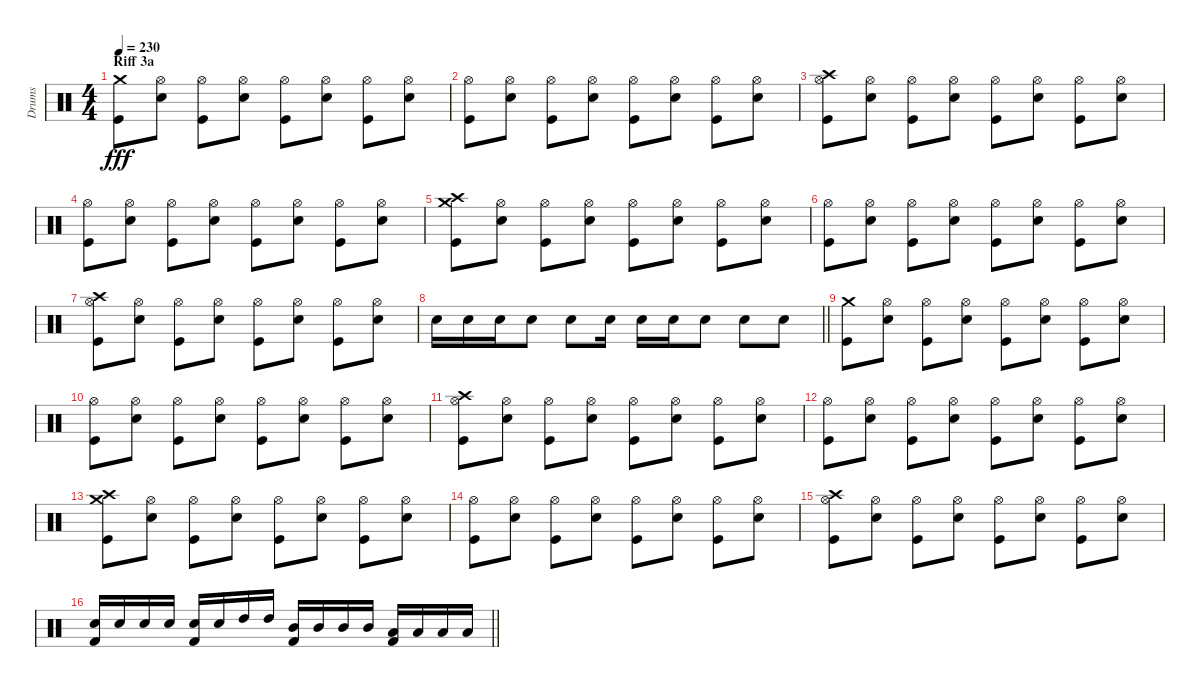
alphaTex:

\track ("Drums" "Drums") {instrument percussion}
\staff {score}
\articulation defaults
\ts (4 4)
\section ("" "Riff 3a")
\tempo 230
\clef neutral
\ks c
("Crash medium (hit)" "Kick (hit)").8{dy fff} ("Hi-Hat (open)" "Snare (hit) 2").8 ("Hi-Hat (open)" "Kick (hit)").8 ("Hi-Hat (open)" "Snare (hit) 2").8 ("Hi-Hat (open)" "Kick (hit)").8 ("Hi-Hat (open)" "Snare (hit) 2").8 ("Hi-Hat (open)" "Kick (hit)").8 ("Hi-Hat (open)" "Snare (hit) 2").8 |
("Hi-Hat (open)" "Kick (hit)").8 ("Hi-Hat (open)" "Snare (hit) 2").8 ("Hi-Hat (open)" "Kick (hit)").8 ("Hi-Hat (open)" "Snare (hit) 2").8 ("Hi-Hat (open)" "Kick (hit)").8 ("Hi-Hat (open)" "Snare (hit) 2").8 ("Hi-Hat (open)" "Kick (hit)").8 ("Hi-Hat (open)" "Snare (hit) 2").8 |
("Crash high (hit)" "Hi-Hat (open)" "Kick (hit)").8 ("Hi-Hat (open)" "Snare (hit) 2").8 ("Hi-Hat (open)" "Kick (hit)").8 ("Hi-Hat (open)" "Snare (hit) 2").8 ("Hi-Hat (open)" "Kick (hit)").8 ("Hi-Hat (open)" "Snare (hit) 2").8 ("Hi-Hat (open)" "Kick (hit)").8 ("Hi-Hat (open)" "Snare (hit) 2").8 |
("Hi-Hat (open)" "Kick (hit)").8 ("Hi-Hat (open)" "Snare (hit) 2").8 ("Hi-Hat (open)" "Kick (hit)").8 ("Hi-Hat (open)" "Snare (hit) 2").8 ("Hi-Hat (open)" "Kick (hit)").8 ("Hi-Hat (open)" "Snare (hit) 2").8 ("Hi-Hat (open)" "Kick (hit)").8 ("Hi-Hat (open)" "Snare (hit) 2").8 |
("Crash medium (hit)" "Crash high (hit)" "Kick (hit)").8 ("Hi-Hat (open)" "Snare (hit) 2").8 ("Hi-Hat (open)" "Kick (hit)").8 ("Hi-Hat (open)" "Snare (hit) 2").8 ("Hi-Hat (open)" "Kick (hit)").8 ("Hi-Hat (open)" "Snare (hit) 2").8 ("Hi-Hat (open)" "Kick (hit)").8 ("Hi-Hat (open)" "Snare (hit) 2").8 |
("Hi-Hat (open)" "Kick (hit)").8 ("Hi-Hat (open)" "Snare (hit) 2").8 ("Hi-Hat (open)" "Kick (hit)").8 ("Hi-Hat (open)" "Snare (hit) 2").8 ("Hi-Hat (open)" "Kick (hit)").8 ("Hi-Hat (open)" "Snare (hit) 2").8 ("Hi-Hat (open)" "Kick (hit)").8 ("Hi-Hat (open)" "Snare (hit) 2").8 |
("Crash high (hit)" "Hi-Hat (open)" "Kick (hit)").8 ("Hi-Hat (open)" "Snare (hit) 2").8 ("Hi-Hat (open)" "Kick (hit)").8 ("Hi-Hat (open)" "Snare (hit) 2").8 ("Hi-Hat (open)" "Kick (hit)").8 ("Hi-Hat (open)" "Snare (hit) 2").8 ("Hi-Hat (open)" "Kick (hit)").8 ("Hi-Hat (open)" "Snare (hit) 2").8 |
\barLineRight lightlight "Electric Snare (hit)".16 "Electric Snare (hit)".16 "Electric Snare (hit)".16 "Electric Snare (hit)".8 "Electric Snare (hit)".8 "Electric Snare (hit)".16 "Electric Snare (hit)".16 "Electric Snare (hit)".16 "Electric Snare (hit)".8 "Electric Snare (hit)".8 "Electric Snare (hit)".8
|
("Crash medium (hit)" "Kick (hit)").8 ("Hi-Hat (open)" "Snare (hit) 2").8 ("Hi-Hat (open)" "Kick (hit)").8 ("Hi-Hat (open)" "Snare (hit) 2").8 ("Hi-Hat (open)" "Kick (hit)").8 ("Hi-Hat (open)" "Snare (hit) 2").8 ("Hi-Hat (open)" "Kick (hit)").8 ("Hi-Hat (open)" "Snare (hit) 2").8 |
("Hi-Hat (open)" "Kick (hit)").8 ("Hi-Hat (open)" "Snare (hit) 2").8 ("Hi-Hat (open)" "Kick (hit)").8 ("Hi-Hat (open)" "Snare (hit) 2").8 ("Hi-Hat (open)" "Kick (hit)").8 ("Hi-Hat (open)" "Snare (hit) 2").8 ("Hi-Hat (open)" "Kick (hit)").8 ("Hi-Hat (open)" "Snare (hit) 2").8 |
("Crash high (hit)" "Hi-Hat (open)" "Kick (hit)").8 ("Hi-Hat (open)" "Snare (hit) 2").8 ("Hi-Hat (open)" "Kick (hit)").8 ("Hi-Hat (open)" "Snare (hit) 2").8 ("Hi-Hat (open)" "Kick (hit)").8 ("Hi-Hat (open)" "Snare (hit) 2").8 ("Hi-Hat (open)" "Kick (hit)").8 ("Hi-Hat (open)" "Snare (hit) 2").8 |
("Hi-Hat (open)" "Kick (hit)").8 ("Hi-Hat (open)" "Snare (hit) 2").8 ("Hi-Hat (open)" "Kick (hit)").8 ("Hi-Hat (open)" "Snare (hit) 2").8 ("Hi-Hat (open)" "Kick (hit)").8 ("Hi-Hat (open)" "Snare (hit) 2").8 ("Hi-Hat (open)" "Kick (hit)").8 ("Hi-Hat (open)" "Snare (hit) 2").8 |
("Crash medium (hit)" "Crash high (hit)" "Kick (hit)").8 ("Hi-Hat (open)" "Snare (hit) 2").8 ("Hi-Hat (open)" "Kick (hit)").8 ("Hi-Hat (open)" "Snare (hit) 2").8 ("Hi-Hat (open)" "Kick (hit)").8 ("Hi-Hat (open)" "Snare (hit) 2").8 ("Hi-Hat (open)" "Kick (hit)").8 ("Hi-Hat (open)" "Snare (hit) 2").8 |
("Hi-Hat (open)" "Kick (hit)").8 ("Hi-Hat (open)" "Snare (hit) 2").8 ("Hi-Hat (open)" "Kick (hit)").8 ("Hi-Hat (open)" "Snare (hit) 2").8 ("Hi-Hat (open)" "Kick (hit)").8 ("Hi-Hat (open)" "Snare (hit) 2").8 ("Hi-Hat (open)" "Kick (hit)").8 ("Hi-Hat (open)" "Snare (hit) 2").8 |
("Crash high (hit)" "Hi-Hat (open)" "Kick (hit)").8 ("Hi-Hat (open)" "Snare (hit) 2").8 ("Hi-Hat (open)" "Kick (hit)").8 ("Hi-Hat (open)" "Snare (hit) 2").8 ("Hi-Hat (open)" "Kick (hit)").8 ("Hi-Hat (open)" "Snare (hit) 2").8 ("Hi-Hat (open)" "Kick (hit)").8 ("Hi-Hat (open)" "Snare (hit) 2").8 |
\barLineRight lightlight
("Electric Snare (hit)" "Kick (hit) 2").16 "Electric Snare (hit)".16 "Electric Snare (hit)".16 "Electric Snare (hit)".16 ("Electric Snare (hit)" "Kick (hit) 2").16 "Electric Snare (hit)".16 "High Tom (hit)".16 "High Tom (hit)".16 ("Mid Tom (hit)" "Kick (hit) 2").16 "Mid Tom (hit)".16 "Mid Tom (hit)".16 "Mid Tom (hit)".16 ("Low Tom (hit)" "Kick (hit) 2").16 "Low Tom (hit)".16 "Low Tom (hit)".16 "Low Tom (hit)".16
